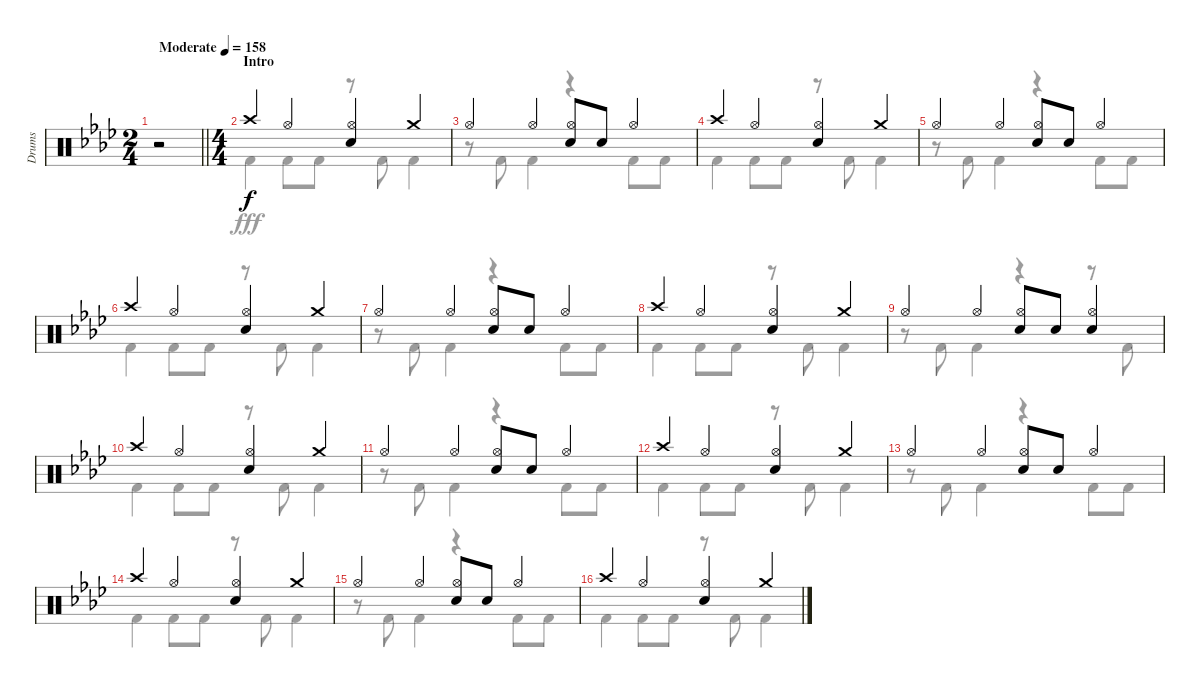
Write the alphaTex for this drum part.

\track ("Drums" "Drums") {instrument percussion}
\staff {score}
\articulation defaults
\voice
\ts (2 4)
\tempo (158 "Moderate")
\clef neutral
\barLineRight lightlight
\ks ab
r.2{dy f} |
\ts (4 4)
\section ("" "Intro")
"Crash high (hit)".4 "Hi-Hat (open)".4 ("Hi-Hat (open)" "Snare (hit) 2").4 "Crash medium (hit)".4 |
"Hi-Hat (open)".4 "Hi-Hat (open)".4 ("Hi-Hat (open)" "Snare (hit) 2").8 "Snare (hit) 2".8 "Hi-Hat (open)".4 |
"Crash high (hit)".4 "Hi-Hat (open)".4 ("Hi-Hat (open)" "Snare (hit) 2").4 "Crash medium (hit)".4 |
"Hi-Hat (open)".4 "Hi-Hat (open)".4 ("Hi-Hat (open)" "Snare (hit) 2").8 "Snare (hit) 2".8 "Hi-Hat (open)".4 |
"Crash high (hit)".4 "Hi-Hat (open)".4 ("Hi-Hat (open)" "Snare (hit) 2").4 "Crash medium (hit)".4 |
"Hi-Hat (open)".4 "Hi-Hat (open)".4 ("Hi-Hat (open)" "Snare (hit) 2").8 "Snare (hit) 2".8 "Hi-Hat (open)".4 |
"Crash high (hit)".4 "Hi-Hat (open)".4 ("Hi-Hat (open)" "Snare (hit) 2").4 "Crash medium (hit)".4 |
"Hi-Hat (open)".4 "Hi-Hat (open)".4 ("Hi-Hat (open)" "Snare (hit) 2").8 "Snare (hit) 2".8 ("Hi-Hat (open)" "Snare (hit) 2").4 |
"Crash high (hit)".4 "Hi-Hat (open)".4 ("Hi-Hat (open)" "Snare (hit) 2").4 "Crash medium (hit)".4 |
"Hi-Hat (open)".4 "Hi-Hat (open)".4 ("Hi-Hat (open)" "Snare (hit) 2").8 "Snare (hit) 2".8 "Hi-Hat (open)".4 |
"Crash high (hit)".4 "Hi-Hat (open)".4 ("Hi-Hat (open)" "Snare (hit) 2").4 "Crash medium (hit)".4 |
"Hi-Hat (open)".4 "Hi-Hat (open)".4 ("Hi-Hat (open)" "Snare (hit) 2").8 "Snare (hit) 2".8 "Hi-Hat (open)".4 |
"Crash high (hit)".4 "Hi-Hat (open)".4 ("Hi-Hat (open)" "Snare (hit) 2").4 "Crash medium (hit)".4 |
"Hi-Hat (open)".4 "Hi-Hat (open)".4 ("Hi-Hat (open)" "Snare (hit) 2").8 "Snare (hit) 2".8 "Hi-Hat (open)".4 |
"Crash high (hit)".4 "Hi-Hat (open)".4 ("Hi-Hat (open)" "Snare (hit) 2").4 "Crash medium (hit)".4
\voice
\clef neutral
\ottava regular
\simile none
\barLineRight lightlight
\ks ab
r.2{dy fff} |
"Kick (hit) 2".4 "Kick (hit) 2".8 "Kick (hit) 2".8 r.8 "Kick (hit) 2".8 "Kick (hit) 2".4 |
r.8 "Kick (hit) 2".8 "Kick (hit) 2".4 r.4 "Kick (hit) 2".8 "Kick (hit) 2".8 |
"Kick (hit) 2".4 "Kick (hit) 2".8 "Kick (hit) 2".8 r.8 "Kick (hit) 2".8 "Kick (hit) 2".4 |
r.8 "Kick (hit) 2".8 "Kick (hit) 2".4 r.4 "Kick (hit) 2".8 "Kick (hit) 2".8 |
"Kick (hit) 2".4 "Kick (hit) 2".8 "Kick (hit) 2".8 r.8 "Kick (hit) 2".8 "Kick (hit) 2".4 |
r.8 "Kick (hit) 2".8 "Kick (hit) 2".4 r.4 "Kick (hit) 2".8 "Kick (hit) 2".8 |
"Kick (hit) 2".4 "Kick (hit) 2".8 "Kick (hit) 2".8 r.8 "Kick (hit) 2".8 "Kick (hit) 2".4 |
r.8 "Kick (hit) 2".8 "Kick (hit) 2".4 r.4 r.8 "Kick (hit) 2".8 |
"Kick (hit) 2".4 "Kick (hit) 2".8 "Kick (hit) 2".8 r.8 "Kick (hit) 2".8 "Kick (hit) 2".4 |
r.8 "Kick (hit) 2".8 "Kick (hit) 2".4 r.4 "Kick (hit) 2".8 "Kick (hit) 2".8 |
"Kick (hit) 2".4 "Kick (hit) 2".8 "Kick (hit) 2".8 r.8 "Kick (hit) 2".8 "Kick (hit) 2".4 |
r.8 "Kick (hit) 2".8 "Kick (hit) 2".4 r.4 "Kick (hit) 2".8 "Kick (hit) 2".8 |
"Kick (hit) 2".4 "Kick (hit) 2".8 "Kick (hit) 2".8 r.8 "Kick (hit) 2".8 "Kick (hit) 2".4 |
r.8 "Kick (hit) 2".8 "Kick (hit) 2".4 r.4 "Kick (hit) 2".8 "Kick (hit) 2".8 |
"Kick (hit) 2".4 "Kick (hit) 2".8 "Kick (hit) 2".8 r.8 "Kick (hit) 2".8 "Kick (hit) 2".4
